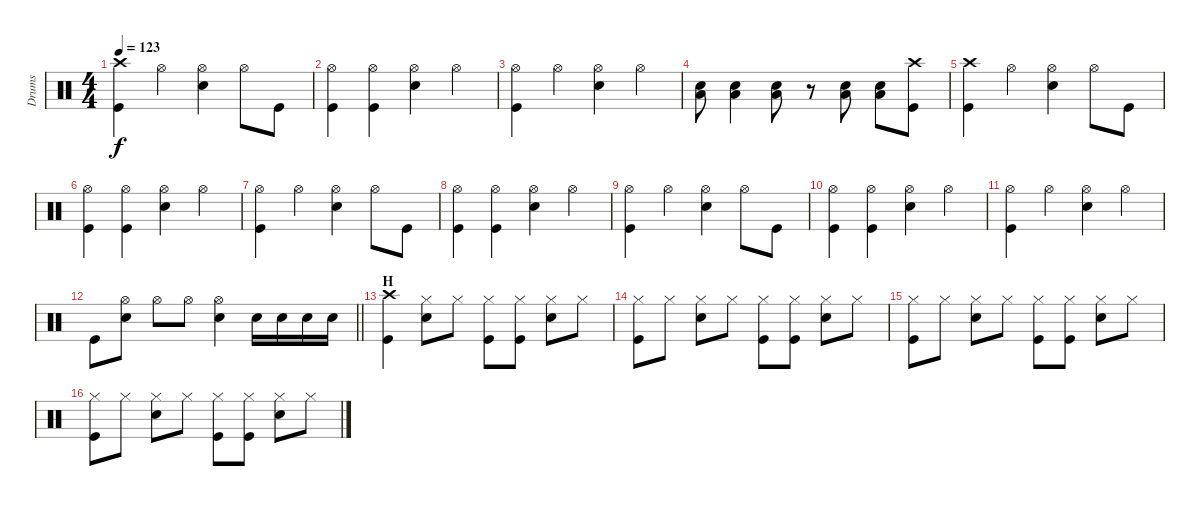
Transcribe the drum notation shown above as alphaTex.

\track ("Drums" "Drums") {instrument percussion}
\staff {score}
\articulation defaults
\ts (4 4)
\tempo 123
\clef neutral
\ks c
("Crash high (hit)" "Kick (hit)").4{dy f} "Hi-Hat (open)".4 ("Hi-Hat (open)" "Electric Snare (hit)").4 "Hi-Hat (open)".8 "Kick (hit)".8 |
("Hi-Hat (open)" "Kick (hit)").4 ("Hi-Hat (open)" "Kick (hit)").4 ("Hi-Hat (open)" "Electric Snare (hit)").4 "Hi-Hat (open)".4 |
("Hi-Hat (open)" "Kick (hit)").4 "Hi-Hat (open)".4 ("Hi-Hat (open)" "Electric Snare (hit)").4 "Hi-Hat (open)".4 |
("Electric Snare (hit)" "Low Tom (hit)").8 ("Electric Snare (hit)" "Low Tom (hit)").4 ("Electric Snare (hit)" "Low Tom (hit)").8 r.8 ("Electric Snare (hit)" "Low Tom (hit)").8 ("Electric Snare (hit)" "Low Tom (hit)").8 ("Crash high (hit)" "Kick (hit)").8 |
("Crash high (hit)" "Kick (hit)").4 "Hi-Hat (open)".4 ("Hi-Hat (open)" "Electric Snare (hit)").4 "Hi-Hat (open)".8 "Kick (hit)".8 |
("Hi-Hat (open)" "Kick (hit)").4 ("Hi-Hat (open)" "Kick (hit)").4 ("Hi-Hat (open)" "Electric Snare (hit)").4 "Hi-Hat (open)".4 |
("Hi-Hat (open)" "Kick (hit)").4 "Hi-Hat (open)".4 ("Hi-Hat (open)" "Electric Snare (hit)").4 "Hi-Hat (open)".8 "Kick (hit)".8 |
("Hi-Hat (open)" "Kick (hit)").4 ("Hi-Hat (open)" "Kick (hit)").4 ("Hi-Hat (open)" "Electric Snare (hit)").4 "Hi-Hat (open)".4 |
("Hi-Hat (open)" "Kick (hit)").4 "Hi-Hat (open)".4 ("Hi-Hat (open)" "Electric Snare (hit)").4 "Hi-Hat (open)".8 "Kick (hit)".8 |
("Hi-Hat (open)" "Kick (hit)").4 ("Hi-Hat (open)" "Kick (hit)").4 ("Hi-Hat (open)" "Electric Snare (hit)").4 "Hi-Hat (open)".4 |
("Hi-Hat (open)" "Kick (hit)").4 "Hi-Hat (open)".4 ("Hi-Hat (open)" "Electric Snare (hit)").4 "Hi-Hat (open)".4 |
\barLineRight lightlight "Kick (hit)".8
("Hi-Hat (open)" "Electric Snare (hit)").8 "Hi-Hat (open)".8 "Hi-Hat (open)".8 ("Hi-Hat (open)" "Electric Snare (hit)").4 "Electric Snare (hit)".16 "Electric Snare (hit)".16 "Electric Snare (hit)".16 "Electric Snare (hit)".16 |
\section ("" "H")
("Crash high (hit)" "Kick (hit)").4 ("Hi-Hat (closed)" "Electric Snare (hit)").8 "Hi-Hat (closed)".8 ("Hi-Hat (closed)" "Kick (hit)").8 ("Hi-Hat (closed)" "Kick (hit)").8 ("Hi-Hat (closed)" "Electric Snare (hit)").8 "Hi-Hat (closed)".8 |
("Hi-Hat (closed)" "Kick (hit)").8 "Hi-Hat (closed)".8 ("Hi-Hat (closed)" "Electric Snare (hit)").8 "Hi-Hat (closed)".8 ("Hi-Hat (closed)" "Kick (hit)").8 ("Hi-Hat (closed)" "Kick (hit)").8 ("Hi-Hat (closed)" "Electric Snare (hit)").8 "Hi-Hat (closed)".8 |
("Hi-Hat (closed)" "Kick (hit)").8 "Hi-Hat (closed)".8 ("Hi-Hat (closed)" "Electric Snare (hit)").8 "Hi-Hat (closed)".8 ("Hi-Hat (closed)" "Kick (hit)").8 ("Hi-Hat (closed)" "Kick (hit)").8 ("Hi-Hat (closed)" "Electric Snare (hit)").8 "Hi-Hat (closed)".8 |
("Hi-Hat (closed)" "Kick (hit)").8 "Hi-Hat (closed)".8 ("Hi-Hat (closed)" "Electric Snare (hit)").8 "Hi-Hat (closed)".8 ("Hi-Hat (closed)" "Kick (hit)").8 ("Hi-Hat (closed)" "Kick (hit)").8 ("Hi-Hat (closed)" "Electric Snare (hit)").8 "Hi-Hat (closed)".8
